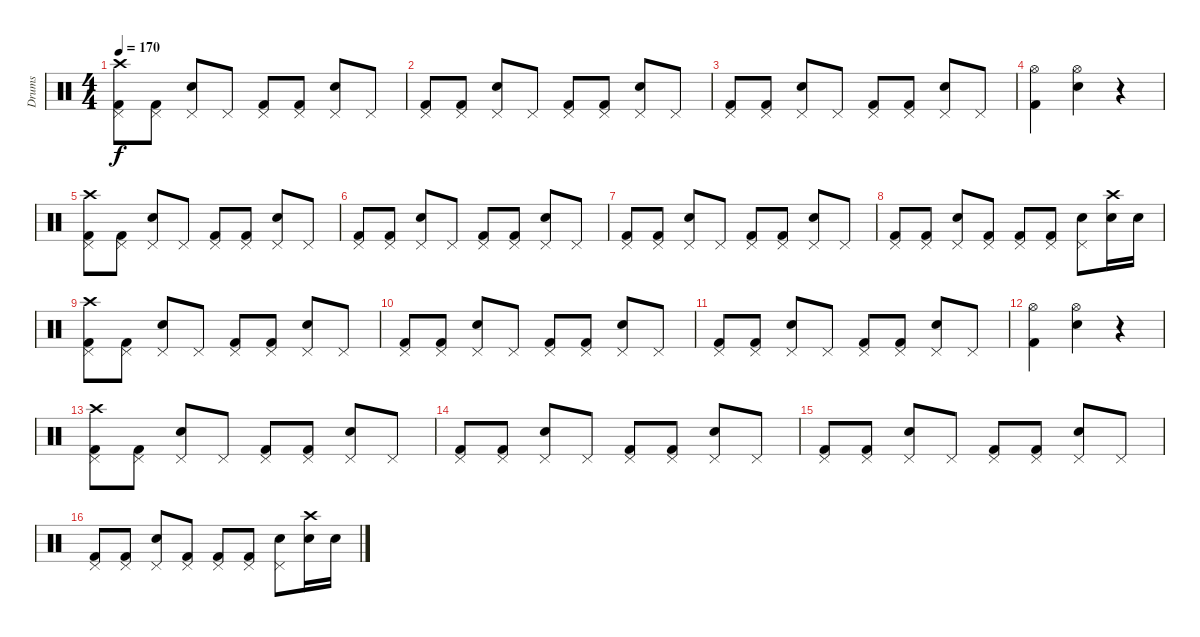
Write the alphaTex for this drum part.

\track ("Drums" "Drums") {instrument percussion}
\staff {score}
\articulation defaults
\ts (4 4)
\tempo 170
\clef neutral
\ks c
("Crash high (hit)" "Pedal Hi-Hat (hit)" "Kick (hit) 2").8{dy f} ("Pedal Hi-Hat (hit)" "Kick (hit) 2").8 ("Pedal Hi-Hat (hit)" "Electric Snare (hit)").8 "Pedal Hi-Hat (hit)".8 ("Pedal Hi-Hat (hit)" "Kick (hit) 2").8 ("Pedal Hi-Hat (hit)" "Kick (hit) 2").8 ("Pedal Hi-Hat (hit)" "Electric Snare (hit)").8 "Pedal Hi-Hat (hit)".8 |
("Pedal Hi-Hat (hit)" "Kick (hit) 2").8 ("Pedal Hi-Hat (hit)" "Kick (hit) 2").8 ("Pedal Hi-Hat (hit)" "Electric Snare (hit)").8 "Pedal Hi-Hat (hit)".8 ("Pedal Hi-Hat (hit)" "Kick (hit) 2").8 ("Pedal Hi-Hat (hit)" "Kick (hit) 2").8 ("Pedal Hi-Hat (hit)" "Electric Snare (hit)").8 "Pedal Hi-Hat (hit)".8 |
("Pedal Hi-Hat (hit)" "Kick (hit) 2").8 ("Pedal Hi-Hat (hit)" "Kick (hit) 2").8 ("Pedal Hi-Hat (hit)" "Electric Snare (hit)").8 "Pedal Hi-Hat (hit)".8 ("Pedal Hi-Hat (hit)" "Kick (hit) 2").8 ("Pedal Hi-Hat (hit)" "Kick (hit) 2").8 ("Pedal Hi-Hat (hit)" "Electric Snare (hit)").8 "Pedal Hi-Hat (hit)".8 |
("Hi-Hat (open)" "Kick (hit) 2").4 ("Hi-Hat (open)" "Electric Snare (hit)").4 r.4 |
("Crash high (hit)" "Pedal Hi-Hat (hit)" "Kick (hit) 2").8 ("Pedal Hi-Hat (hit)" "Kick (hit) 2").8 ("Pedal Hi-Hat (hit)" "Electric Snare (hit)").8 "Pedal Hi-Hat (hit)".8 ("Pedal Hi-Hat (hit)" "Kick (hit) 2").8 ("Pedal Hi-Hat (hit)" "Kick (hit) 2").8 ("Pedal Hi-Hat (hit)" "Electric Snare (hit)").8 "Pedal Hi-Hat (hit)".8 |
("Pedal Hi-Hat (hit)" "Kick (hit) 2").8 ("Pedal Hi-Hat (hit)" "Kick (hit) 2").8 ("Pedal Hi-Hat (hit)" "Electric Snare (hit)").8 "Pedal Hi-Hat (hit)".8 ("Pedal Hi-Hat (hit)" "Kick (hit) 2").8 ("Pedal Hi-Hat (hit)" "Kick (hit) 2").8 ("Pedal Hi-Hat (hit)" "Electric Snare (hit)").8 "Pedal Hi-Hat (hit)".8 |
("Pedal Hi-Hat (hit)" "Kick (hit) 2").8 ("Pedal Hi-Hat (hit)" "Kick (hit) 2").8 ("Pedal Hi-Hat (hit)" "Electric Snare (hit)").8 "Pedal Hi-Hat (hit)".8 ("Pedal Hi-Hat (hit)" "Kick (hit) 2").8 ("Pedal Hi-Hat (hit)" "Kick (hit) 2").8 ("Pedal Hi-Hat (hit)" "Electric Snare (hit)").8 "Pedal Hi-Hat (hit)".8 |
("Pedal Hi-Hat (hit)" "Kick (hit) 2").8 ("Pedal Hi-Hat (hit)" "Kick (hit) 2").8 ("Pedal Hi-Hat (hit)" "Electric Snare (hit)").8 ("Pedal Hi-Hat (hit)" "Kick (hit) 2").8 ("Pedal Hi-Hat (hit)" "Kick (hit) 2").8 ("Pedal Hi-Hat (hit)" "Kick (hit) 2").8 ("Pedal Hi-Hat (hit)" "Electric Snare (hit)").8 ("Crash high (hit)" "Electric Snare (hit)").16 "Electric Snare (hit)".16 |
("Crash high (hit)" "Pedal Hi-Hat (hit)" "Kick (hit) 2").8 ("Pedal Hi-Hat (hit)" "Kick (hit) 2").8 ("Pedal Hi-Hat (hit)" "Electric Snare (hit)").8 "Pedal Hi-Hat (hit)".8 ("Pedal Hi-Hat (hit)" "Kick (hit) 2").8 ("Pedal Hi-Hat (hit)" "Kick (hit) 2").8 ("Pedal Hi-Hat (hit)" "Electric Snare (hit)").8 "Pedal Hi-Hat (hit)".8 |
("Pedal Hi-Hat (hit)" "Kick (hit) 2").8 ("Pedal Hi-Hat (hit)" "Kick (hit) 2").8 ("Pedal Hi-Hat (hit)" "Electric Snare (hit)").8 "Pedal Hi-Hat (hit)".8 ("Pedal Hi-Hat (hit)" "Kick (hit) 2").8 ("Pedal Hi-Hat (hit)" "Kick (hit) 2").8 ("Pedal Hi-Hat (hit)" "Electric Snare (hit)").8 "Pedal Hi-Hat (hit)".8 |
("Pedal Hi-Hat (hit)" "Kick (hit) 2").8 ("Pedal Hi-Hat (hit)" "Kick (hit) 2").8 ("Pedal Hi-Hat (hit)" "Electric Snare (hit)").8 "Pedal Hi-Hat (hit)".8 ("Pedal Hi-Hat (hit)" "Kick (hit) 2").8 ("Pedal Hi-Hat (hit)" "Kick (hit) 2").8 ("Pedal Hi-Hat (hit)" "Electric Snare (hit)").8 "Pedal Hi-Hat (hit)".8 |
("Hi-Hat (open)" "Kick (hit) 2").4 ("Hi-Hat (open)" "Electric Snare (hit)").4 r.4 |
("Crash high (hit)" "Pedal Hi-Hat (hit)" "Kick (hit) 2").8 ("Pedal Hi-Hat (hit)" "Kick (hit) 2").8 ("Pedal Hi-Hat (hit)" "Electric Snare (hit)").8 "Pedal Hi-Hat (hit)".8 ("Pedal Hi-Hat (hit)" "Kick (hit) 2").8 ("Pedal Hi-Hat (hit)" "Kick (hit) 2").8 ("Pedal Hi-Hat (hit)" "Electric Snare (hit)").8 "Pedal Hi-Hat (hit)".8 |
("Pedal Hi-Hat (hit)" "Kick (hit) 2").8 ("Pedal Hi-Hat (hit)" "Kick (hit) 2").8 ("Pedal Hi-Hat (hit)" "Electric Snare (hit)").8 "Pedal Hi-Hat (hit)".8 ("Pedal Hi-Hat (hit)" "Kick (hit) 2").8 ("Pedal Hi-Hat (hit)" "Kick (hit) 2").8 ("Pedal Hi-Hat (hit)" "Electric Snare (hit)").8 "Pedal Hi-Hat (hit)".8 |
("Pedal Hi-Hat (hit)" "Kick (hit) 2").8 ("Pedal Hi-Hat (hit)" "Kick (hit) 2").8 ("Pedal Hi-Hat (hit)" "Electric Snare (hit)").8 "Pedal Hi-Hat (hit)".8 ("Pedal Hi-Hat (hit)" "Kick (hit) 2").8 ("Pedal Hi-Hat (hit)" "Kick (hit) 2").8 ("Pedal Hi-Hat (hit)" "Electric Snare (hit)").8 "Pedal Hi-Hat (hit)".8 |
("Pedal Hi-Hat (hit)" "Kick (hit) 2").8 ("Pedal Hi-Hat (hit)" "Kick (hit) 2").8 ("Pedal Hi-Hat (hit)" "Electric Snare (hit)").8 ("Pedal Hi-Hat (hit)" "Kick (hit) 2").8 ("Pedal Hi-Hat (hit)" "Kick (hit) 2").8 ("Pedal Hi-Hat (hit)" "Kick (hit) 2").8 ("Pedal Hi-Hat (hit)" "Electric Snare (hit)").8 ("Crash high (hit)" "Electric Snare (hit)").16 "Electric Snare (hit)".16
